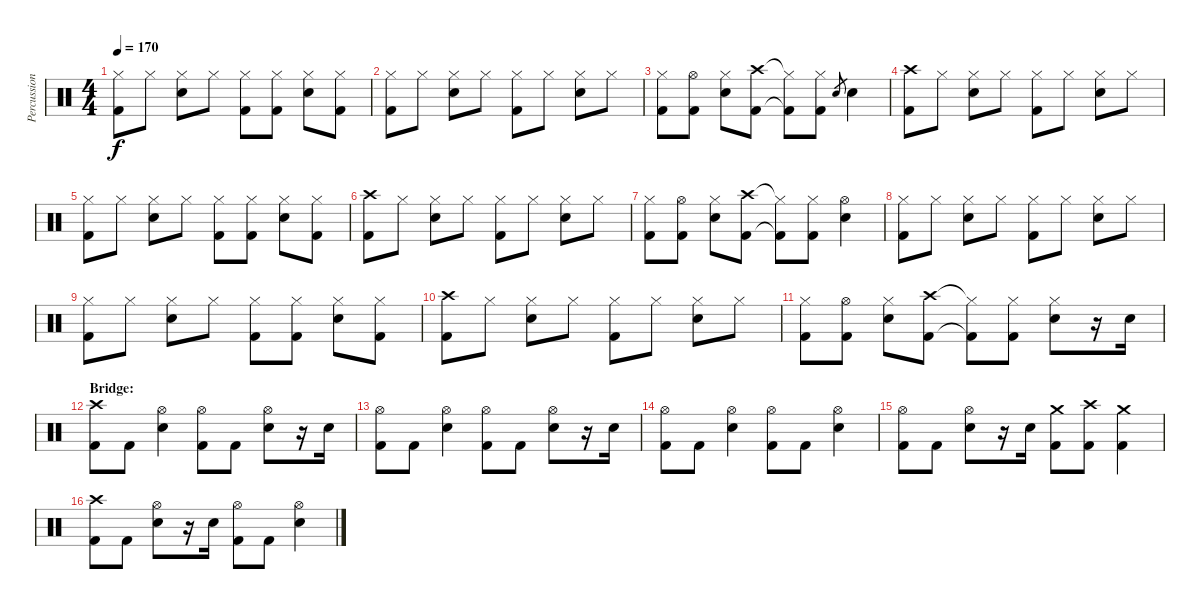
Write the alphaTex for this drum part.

\track ("Percussion" "Percussion") {instrument percussion}
\staff {score}
\articulation defaults
\ts (4 4)
\tempo 170
\clef neutral
\ks c
("Hi-Hat (closed)" "Kick (hit) 2").8{dy f} "Hi-Hat (closed)".8 ("Hi-Hat (closed)" "Snare (hit) 2").8 "Hi-Hat (closed)".8 ("Hi-Hat (closed)" "Kick (hit) 2").8 ("Hi-Hat (closed)" "Kick (hit) 2").8 ("Hi-Hat (closed)" "Snare (hit) 2").8 ("Hi-Hat (closed)" "Kick (hit) 2").8 |
("Hi-Hat (closed)" "Kick (hit) 2").8 "Hi-Hat (closed)".8 ("Hi-Hat (closed)" "Snare (hit) 2").8 "Hi-Hat (closed)".8 ("Hi-Hat (closed)" "Kick (hit) 2").8 "Hi-Hat (closed)".8 ("Hi-Hat (closed)" "Snare (hit) 2").8 "Hi-Hat (closed)".8 |
("Hi-Hat (closed)" "Kick (hit) 2").8 ("Hi-Hat (open)" "Kick (hit) 2").8 ("Hi-Hat (closed)" "Snare (hit) 2").8 ("Crash high (hit)" "Kick (hit) 2").8 ("Hi-Hat (closed)"{t} "Kick (hit) 2"{t}).8 ("Hi-Hat (closed)" "Kick (hit) 2").8 "Snare (hit) 2".8{gr} "Snare (hit) 2".4 |
("Crash high (hit)" "Kick (hit) 2").8 "Hi-Hat (closed)".8 ("Hi-Hat (closed)" "Snare (hit) 2").8 "Hi-Hat (closed)".8 ("Hi-Hat (closed)" "Kick (hit) 2").8 "Hi-Hat (closed)".8 ("Hi-Hat (closed)" "Snare (hit) 2").8 "Hi-Hat (closed)".8 |
("Hi-Hat (closed)" "Kick (hit) 2").8 "Hi-Hat (closed)".8 ("Hi-Hat (closed)" "Snare (hit) 2").8 "Hi-Hat (closed)".8 ("Hi-Hat (closed)" "Kick (hit) 2").8 ("Hi-Hat (closed)" "Kick (hit) 2").8 ("Hi-Hat (closed)" "Snare (hit) 2").8 ("Hi-Hat (closed)" "Kick (hit) 2").8 |
("Crash high (hit)" "Kick (hit) 2").8 "Hi-Hat (closed)".8 ("Hi-Hat (closed)" "Snare (hit) 2").8 "Hi-Hat (closed)".8 ("Hi-Hat (closed)" "Kick (hit) 2").8 "Hi-Hat (closed)".8 ("Hi-Hat (closed)" "Snare (hit) 2").8 "Hi-Hat (closed)".8 |
("Hi-Hat (closed)" "Kick (hit) 2").8 ("Hi-Hat (open)" "Kick (hit) 2").8 ("Hi-Hat (closed)" "Snare (hit) 2").8 ("Crash high (hit)" "Kick (hit) 2").8 ("Hi-Hat (closed)"{t} "Kick (hit) 2"{t}).8 ("Hi-Hat (closed)" "Kick (hit) 2").8 ("Hi-Hat (open)" "Snare (hit) 2").4 |
("Hi-Hat (closed)" "Kick (hit) 2").8 "Hi-Hat (closed)".8 ("Hi-Hat (closed)" "Snare (hit) 2").8 "Hi-Hat (closed)".8 ("Hi-Hat (closed)" "Kick (hit) 2").8 "Hi-Hat (closed)".8 ("Hi-Hat (closed)" "Snare (hit) 2").8 "Hi-Hat (closed)".8 |
("Hi-Hat (closed)" "Kick (hit) 2").8 "Hi-Hat (closed)".8 ("Hi-Hat (closed)" "Snare (hit) 2").8 "Hi-Hat (closed)".8 ("Hi-Hat (closed)" "Kick (hit) 2").8 ("Hi-Hat (closed)" "Kick (hit) 2").8 ("Hi-Hat (closed)" "Snare (hit) 2").8 ("Hi-Hat (closed)" "Kick (hit) 2").8 |
("Crash high (hit)" "Kick (hit) 2").8 "Hi-Hat (closed)".8 ("Hi-Hat (closed)" "Snare (hit) 2").8 "Hi-Hat (closed)".8 ("Hi-Hat (closed)" "Kick (hit) 2").8 "Hi-Hat (closed)".8 ("Hi-Hat (closed)" "Snare (hit) 2").8 "Hi-Hat (closed)".8 |
("Hi-Hat (closed)" "Kick (hit) 2").8 ("Hi-Hat (open)" "Kick (hit) 2").8 ("Hi-Hat (closed)" "Snare (hit) 2").8 ("Crash high (hit)" "Kick (hit) 2").8 ("Hi-Hat (closed)"{t} "Kick (hit) 2"{t}).8 ("Hi-Hat (closed)" "Kick (hit) 2").8 ("Hi-Hat (closed)" "Snare (hit) 2").8 r.16 "Snare (hit) 2".16 |
\section ("" "Bridge:")
("Crash high (hit)" "Kick (hit) 2").8 "Kick (hit) 2".8 ("Hi-Hat (open)" "Snare (hit) 2").4 ("Hi-Hat (open)" "Kick (hit) 2").8 "Kick (hit) 2".8 ("Hi-Hat (open)" "Snare (hit) 2").8 r.16 "Snare (hit) 2".16 |
("Hi-Hat (open)" "Kick (hit) 2").8 "Kick (hit) 2".8 ("Hi-Hat (open)" "Snare (hit) 2").4 ("Hi-Hat (open)" "Kick (hit) 2").8 "Kick (hit) 2".8 ("Hi-Hat (open)" "Snare (hit) 2").8 r.16 "Snare (hit) 2".16 |
("Hi-Hat (open)" "Kick (hit) 2").8 "Kick (hit) 2".8 ("Hi-Hat (open)" "Snare (hit) 2").4 ("Hi-Hat (open)" "Kick (hit) 2").8 "Kick (hit) 2".8 ("Hi-Hat (open)" "Snare (hit) 2").4 |
("Hi-Hat (open)" "Kick (hit) 2").8 "Kick (hit) 2".8 ("Hi-Hat (open)" "Snare (hit) 2").8 r.16 "Snare (hit) 2".16 ("Crash medium (hit)" "Kick (hit) 2").8 ("Crash high (hit)" "Kick (hit) 2").8 ("Crash medium (hit)" "Kick (hit) 2").4 |
("Crash high (hit)" "Kick (hit) 2").8 "Kick (hit) 2".8 ("Hi-Hat (open)" "Snare (hit) 2").8 r.16 "Snare (hit) 2".16 ("Hi-Hat (open)" "Kick (hit) 2").8 "Kick (hit) 2".8 ("Hi-Hat (open)" "Snare (hit) 2").4
